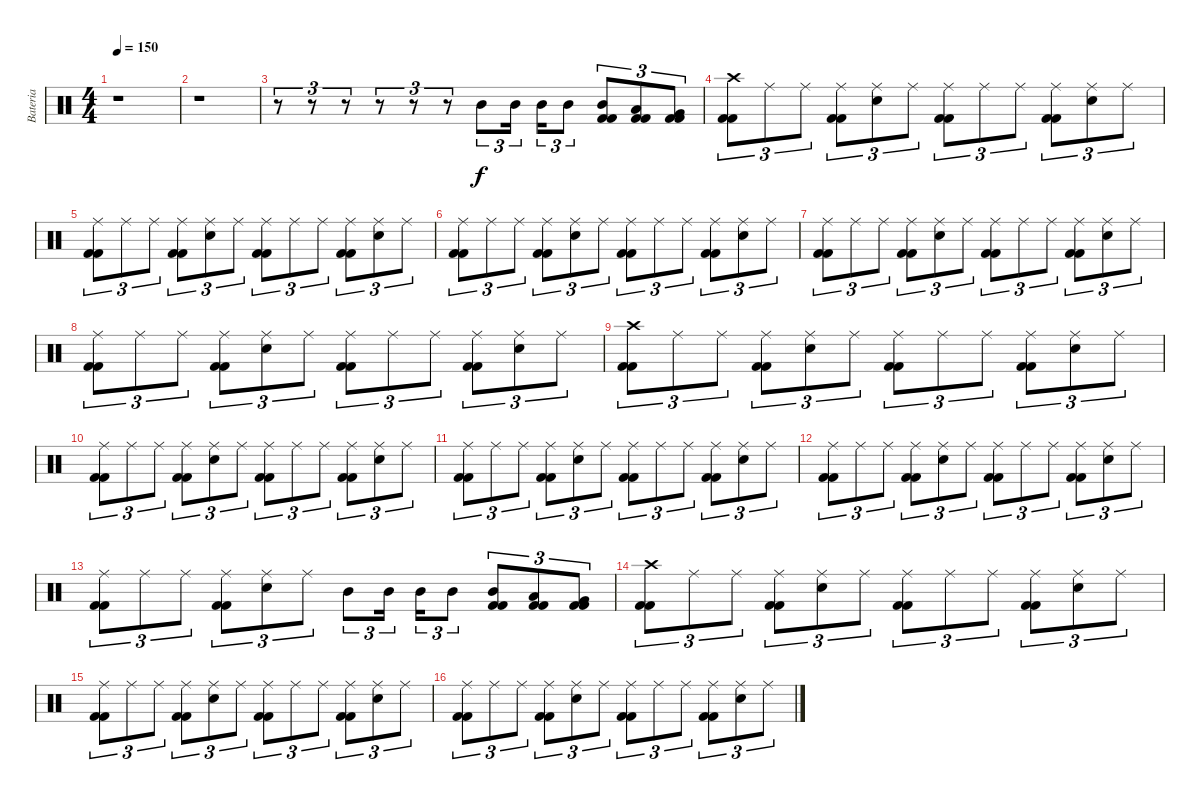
\track ("Bateria" "Bateria") {instrument percussion}
\staff {score}
\articulation defaults
\ts (4 4)
\tempo 150
\clef neutral
\ks c
r.1{dy f} |
r.1 |
r.8{tu (3 2)} r.8{tu (3 2)} r.8{tu (3 2)} r.8{tu (3 2)} r.8{tu (3 2)} r.8{tu (3 2)} "Mid Tom (hit)".8{tu (3 2)} "Mid Tom (hit)".16{tu (3 2)} "Mid Tom (hit)".16{tu (3 2)} "Mid Tom (hit)".8{tu (3 2)} ("Kick (hit) 2" "Kick (hit) 2" "Mid Tom (hit)").8{tu (3 2)} ("Kick (hit) 2" "Kick (hit) 2" "Low Tom (hit)").8{tu (3 2)} ("Kick (hit) 2" "Kick (hit) 2" "Very Low Tom (hit)").8{tu (3 2)} |
("Kick (hit) 2" "Kick (hit) 2" "Crash high (hit)").8{tu (3 2)} "Ride (middle)".8{tu (3 2)} "Ride (middle)".8{tu (3 2)} ("Kick (hit) 2" "Kick (hit) 2" "Ride (middle)").8{tu (3 2)} ("Snare (hit) 2" "Ride (middle)").8{tu (3 2)} "Ride (middle)".8{tu (3 2)} ("Kick (hit) 2" "Kick (hit) 2" "Ride (middle)").8{tu (3 2)} "Ride (middle)".8{tu (3 2)} "Ride (middle)".8{tu (3 2)} ("Kick (hit) 2" "Kick (hit) 2" "Ride (middle)").8{tu (3 2)} ("Snare (hit) 2" "Ride (middle)").8{tu (3 2)} "Ride (middle)".8{tu (3 2)} |
("Kick (hit) 2" "Kick (hit) 2" "Ride (middle)").8{tu (3 2)} "Ride (middle)".8{tu (3 2)} "Ride (middle)".8{tu (3 2)} ("Kick (hit) 2" "Kick (hit) 2" "Ride (middle)").8{tu (3 2)} ("Snare (hit) 2" "Ride (middle)").8{tu (3 2)} "Ride (middle)".8{tu (3 2)} ("Kick (hit) 2" "Kick (hit) 2" "Ride (middle)").8{tu (3 2)} "Ride (middle)".8{tu (3 2)} "Ride (middle)".8{tu (3 2)} ("Kick (hit) 2" "Kick (hit) 2" "Ride (middle)").8{tu (3 2)} ("Snare (hit) 2" "Ride (middle)").8{tu (3 2)} "Ride (middle)".8{tu (3 2)} |
("Kick (hit) 2" "Kick (hit) 2" "Ride (middle)").8{tu (3 2)} "Ride (middle)".8{tu (3 2)} "Ride (middle)".8{tu (3 2)} ("Kick (hit) 2" "Kick (hit) 2" "Ride (middle)").8{tu (3 2)} ("Snare (hit) 2" "Ride (middle)").8{tu (3 2)} "Ride (middle)".8{tu (3 2)} ("Kick (hit) 2" "Kick (hit) 2" "Ride (middle)").8{tu (3 2)} "Ride (middle)".8{tu (3 2)} "Ride (middle)".8{tu (3 2)} ("Kick (hit) 2" "Kick (hit) 2" "Ride (middle)").8{tu (3 2)} ("Snare (hit) 2" "Ride (middle)").8{tu (3 2)} "Ride (middle)".8{tu (3 2)} |
("Kick (hit) 2" "Kick (hit) 2" "Ride (middle)").8{tu (3 2)} "Ride (middle)".8{tu (3 2)} "Ride (middle)".8{tu (3 2)} ("Kick (hit) 2" "Kick (hit) 2" "Ride (middle)").8{tu (3 2)} ("Snare (hit) 2" "Ride (middle)").8{tu (3 2)} "Ride (middle)".8{tu (3 2)} ("Kick (hit) 2" "Kick (hit) 2" "Ride (middle)").8{tu (3 2)} "Ride (middle)".8{tu (3 2)} "Ride (middle)".8{tu (3 2)} ("Kick (hit) 2" "Kick (hit) 2" "Ride (middle)").8{tu (3 2)} ("Snare (hit) 2" "Ride (middle)").8{tu (3 2)} "Ride (middle)".8{tu (3 2)} |
("Kick (hit) 2" "Kick (hit) 2" "Ride (middle)").8{tu (3 2)} "Ride (middle)".8{tu (3 2)} "Ride (middle)".8{tu (3 2)} ("Kick (hit) 2" "Kick (hit) 2" "Ride (middle)").8{tu (3 2)} ("Snare (hit) 2" "Ride (middle)").8{tu (3 2)} "Ride (middle)".8{tu (3 2)} ("Kick (hit) 2" "Kick (hit) 2" "Ride (middle)").8{tu (3 2)} "Ride (middle)".8{tu (3 2)} "Ride (middle)".8{tu (3 2)} ("Kick (hit) 2" "Kick (hit) 2" "Ride (middle)").8{tu (3 2)} ("Snare (hit) 2" "Ride (middle)").8{tu (3 2)} "Ride (middle)".8{tu (3 2)} |
("Kick (hit) 2" "Kick (hit) 2" "Crash high (hit)").8{tu (3 2)} "Ride (middle)".8{tu (3 2)} "Ride (middle)".8{tu (3 2)} ("Kick (hit) 2" "Kick (hit) 2" "Ride (middle)").8{tu (3 2)} ("Snare (hit) 2" "Ride (middle)").8{tu (3 2)} "Ride (middle)".8{tu (3 2)} ("Kick (hit) 2" "Kick (hit) 2" "Ride (middle)").8{tu (3 2)} "Ride (middle)".8{tu (3 2)} "Ride (middle)".8{tu (3 2)} ("Kick (hit) 2" "Kick (hit) 2" "Ride (middle)").8{tu (3 2)} ("Snare (hit) 2" "Ride (middle)").8{tu (3 2)} "Ride (middle)".8{tu (3 2)} |
("Kick (hit) 2" "Kick (hit) 2" "Ride (middle)").8{tu (3 2)} "Ride (middle)".8{tu (3 2)} "Ride (middle)".8{tu (3 2)} ("Kick (hit) 2" "Kick (hit) 2" "Ride (middle)").8{tu (3 2)} ("Snare (hit) 2" "Ride (middle)").8{tu (3 2)} "Ride (middle)".8{tu (3 2)} ("Kick (hit) 2" "Kick (hit) 2" "Ride (middle)").8{tu (3 2)} "Ride (middle)".8{tu (3 2)} "Ride (middle)".8{tu (3 2)} ("Kick (hit) 2" "Kick (hit) 2" "Ride (middle)").8{tu (3 2)} ("Snare (hit) 2" "Ride (middle)").8{tu (3 2)} "Ride (middle)".8{tu (3 2)} |
("Kick (hit) 2" "Kick (hit) 2" "Ride (middle)").8{tu (3 2)} "Ride (middle)".8{tu (3 2)} "Ride (middle)".8{tu (3 2)} ("Kick (hit) 2" "Kick (hit) 2" "Ride (middle)").8{tu (3 2)} ("Snare (hit) 2" "Ride (middle)").8{tu (3 2)} "Ride (middle)".8{tu (3 2)} ("Kick (hit) 2" "Kick (hit) 2" "Ride (middle)").8{tu (3 2)} "Ride (middle)".8{tu (3 2)} "Ride (middle)".8{tu (3 2)} ("Kick (hit) 2" "Kick (hit) 2" "Ride (middle)").8{tu (3 2)} ("Snare (hit) 2" "Ride (middle)").8{tu (3 2)} "Ride (middle)".8{tu (3 2)} |
("Kick (hit) 2" "Kick (hit) 2" "Ride (middle)").8{tu (3 2)} "Ride (middle)".8{tu (3 2)} "Ride (middle)".8{tu (3 2)} ("Kick (hit) 2" "Kick (hit) 2" "Ride (middle)").8{tu (3 2)} ("Snare (hit) 2" "Ride (middle)").8{tu (3 2)} "Ride (middle)".8{tu (3 2)} ("Kick (hit) 2" "Kick (hit) 2" "Ride (middle)").8{tu (3 2)} "Ride (middle)".8{tu (3 2)} "Ride (middle)".8{tu (3 2)} ("Kick (hit) 2" "Kick (hit) 2" "Ride (middle)").8{tu (3 2)} ("Snare (hit) 2" "Ride (middle)").8{tu (3 2)} "Ride (middle)".8{tu (3 2)} |
("Kick (hit) 2" "Kick (hit) 2" "Ride (middle)").8{tu (3 2)} "Ride (middle)".8{tu (3 2)} "Ride (middle)".8{tu (3 2)} ("Kick (hit) 2" "Kick (hit) 2" "Ride (middle)").8{tu (3 2)} ("Snare (hit) 2" "Ride (middle)").8{tu (3 2)} "Ride (middle)".8{tu (3 2)} "Mid Tom (hit)".8{tu (3 2)} "Mid Tom (hit)".16{tu (3 2)} "Mid Tom (hit)".16{tu (3 2)} "Mid Tom (hit)".8{tu (3 2)} ("Kick (hit) 2" "Kick (hit) 2" "Mid Tom (hit)").8{tu (3 2)} ("Kick (hit) 2" "Kick (hit) 2" "Low Tom (hit)").8{tu (3 2)} ("Kick (hit) 2" "Kick (hit) 2" "Very Low Tom (hit)").8{tu (3 2)} |
("Kick (hit) 2" "Kick (hit) 2" "Crash high (hit)").8{tu (3 2)} "Ride (middle)".8{tu (3 2)} "Ride (middle)".8{tu (3 2)} ("Kick (hit) 2" "Kick (hit) 2" "Ride (middle)").8{tu (3 2)} ("Snare (hit) 2" "Ride (middle)").8{tu (3 2)} "Ride (middle)".8{tu (3 2)} ("Kick (hit) 2" "Kick (hit) 2" "Ride (middle)").8{tu (3 2)} "Ride (middle)".8{tu (3 2)} "Ride (middle)".8{tu (3 2)} ("Kick (hit) 2" "Kick (hit) 2" "Ride (middle)").8{tu (3 2)} ("Snare (hit) 2" "Ride (middle)").8{tu (3 2)} "Ride (middle)".8{tu (3 2)} |
("Kick (hit) 2" "Kick (hit) 2" "Ride (middle)").8{tu (3 2)} "Ride (middle)".8{tu (3 2)} "Ride (middle)".8{tu (3 2)} ("Kick (hit) 2" "Kick (hit) 2" "Ride (middle)").8{tu (3 2)} ("Snare (hit) 2" "Ride (middle)").8{tu (3 2)} "Ride (middle)".8{tu (3 2)} ("Kick (hit) 2" "Kick (hit) 2" "Ride (middle)").8{tu (3 2)} "Ride (middle)".8{tu (3 2)} "Ride (middle)".8{tu (3 2)} ("Kick (hit) 2" "Kick (hit) 2" "Ride (middle)").8{tu (3 2)} ("Snare (hit) 2" "Ride (middle)").8{tu (3 2)} "Ride (middle)".8{tu (3 2)} |
("Kick (hit) 2" "Kick (hit) 2" "Ride (middle)").8{tu (3 2)} "Ride (middle)".8{tu (3 2)} "Ride (middle)".8{tu (3 2)} ("Kick (hit) 2" "Kick (hit) 2" "Ride (middle)").8{tu (3 2)} ("Snare (hit) 2" "Ride (middle)").8{tu (3 2)} "Ride (middle)".8{tu (3 2)} ("Kick (hit) 2" "Kick (hit) 2" "Ride (middle)").8{tu (3 2)} "Ride (middle)".8{tu (3 2)} "Ride (middle)".8{tu (3 2)} ("Kick (hit) 2" "Kick (hit) 2" "Ride (middle)").8{tu (3 2)} ("Snare (hit) 2" "Ride (middle)").8{tu (3 2)} "Ride (middle)".8{tu (3 2)}
